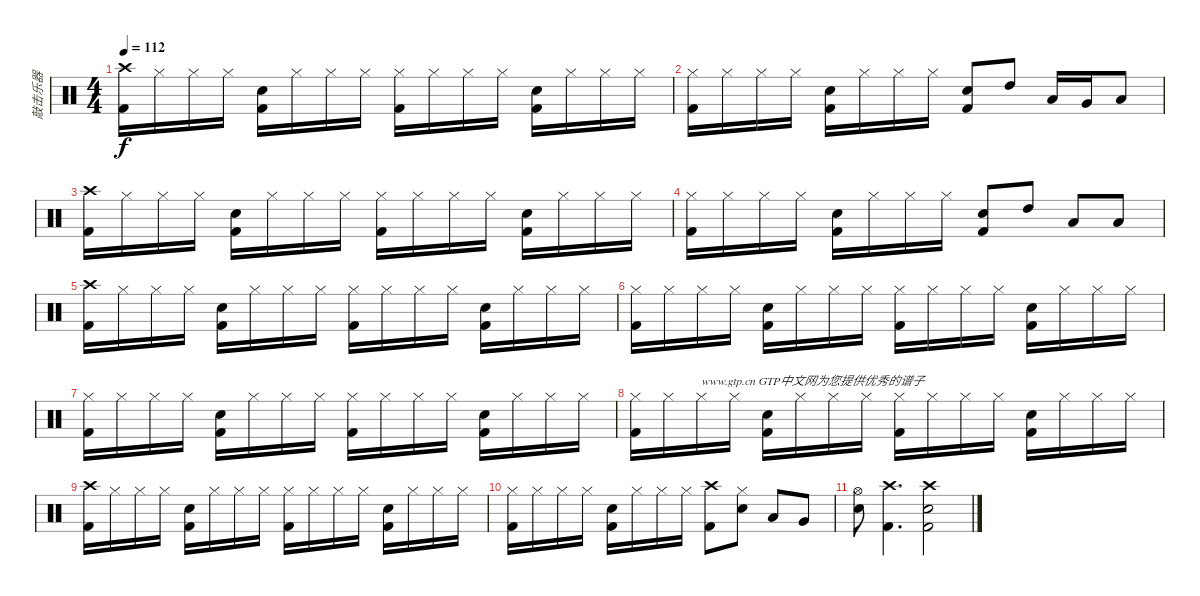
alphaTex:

\track ("敲击乐器" "敲击乐器") {instrument percussion}
\staff {score}
\articulation defaults
\ts (4 4)
\tempo 112
\clef neutral
\ks c
("Crash high (hit)" "Kick (hit) 2").16{dy f} "Hi-Hat (closed)".16 "Hi-Hat (closed)".16 "Hi-Hat (closed)".16 ("Snare (hit) 2" "Kick (hit) 2").16 "Hi-Hat (closed)".16 "Hi-Hat (closed)".16 "Hi-Hat (closed)".16 ("Hi-Hat (closed)" "Kick (hit) 2").16 "Hi-Hat (closed)".16 "Hi-Hat (closed)".16 "Hi-Hat (closed)".16 ("Snare (hit) 2" "Kick (hit) 2").16 "Hi-Hat (closed)".16 "Hi-Hat (closed)".16 "Hi-Hat (closed)".16 |
("Hi-Hat (closed)" "Kick (hit) 2").16 "Hi-Hat (closed)".16 "Hi-Hat (closed)".16 "Hi-Hat (closed)".16 ("Snare (hit) 2" "Kick (hit) 2").16 "Hi-Hat (closed)".16 "Hi-Hat (closed)".16 "Hi-Hat (closed)".16 ("Snare (hit) 2" "Kick (hit) 2").8 "High Tom (hit)".8 "Low Tom (hit)".16 "Very Low Tom (hit)".16 "Low Floor Tom (hit)".8 |
("Crash high (hit)" "Kick (hit) 2").16 "Hi-Hat (closed)".16 "Hi-Hat (closed)".16 "Hi-Hat (closed)".16 ("Snare (hit) 2" "Kick (hit) 2").16 "Hi-Hat (closed)".16 "Hi-Hat (closed)".16 "Hi-Hat (closed)".16 ("Hi-Hat (closed)" "Kick (hit) 2").16 "Hi-Hat (closed)".16 "Hi-Hat (closed)".16 "Hi-Hat (closed)".16 ("Snare (hit) 2" "Kick (hit) 2").16 "Hi-Hat (closed)".16 "Hi-Hat (closed)".16 "Hi-Hat (closed)".16 |
("Hi-Hat (closed)" "Kick (hit) 2").16 "Hi-Hat (closed)".16 "Hi-Hat (closed)".16 "Hi-Hat (closed)".16 ("Snare (hit) 2" "Kick (hit) 2").16 "Hi-Hat (closed)".16 "Hi-Hat (closed)".16 "Hi-Hat (closed)".16 ("Snare (hit) 2" "Kick (hit) 2").8 "High Tom (hit)".8 "Low Tom (hit)".8 "Low Floor Tom (hit)".8 |
("Crash high (hit)" "Kick (hit) 2").16 "Hi-Hat (closed)".16 "Hi-Hat (closed)".16 "Hi-Hat (closed)".16 ("Snare (hit) 2" "Kick (hit) 2").16 "Hi-Hat (closed)".16 "Hi-Hat (closed)".16 "Hi-Hat (closed)".16 ("Hi-Hat (closed)" "Kick (hit) 2").16 "Hi-Hat (closed)".16 "Hi-Hat (closed)".16 "Hi-Hat (closed)".16 ("Snare (hit) 2" "Kick (hit) 2").16 "Hi-Hat (closed)".16 "Hi-Hat (closed)".16 "Hi-Hat (closed)".16 |
("Hi-Hat (closed)" "Kick (hit) 2").16 "Hi-Hat (closed)".16 "Hi-Hat (closed)".16 "Hi-Hat (closed)".16 ("Snare (hit) 2" "Kick (hit) 2").16 "Hi-Hat (closed)".16 "Hi-Hat (closed)".16 "Hi-Hat (closed)".16 ("Hi-Hat (closed)" "Kick (hit) 2").16 "Hi-Hat (closed)".16 "Hi-Hat (closed)".16 "Hi-Hat (closed)".16 ("Snare (hit) 2" "Kick (hit) 2").16 "Hi-Hat (closed)".16 "Hi-Hat (closed)".16 "Hi-Hat (closed)".16 |
("Hi-Hat (closed)" "Kick (hit) 2").16 "Hi-Hat (closed)".16 "Hi-Hat (closed)".16 "Hi-Hat (closed)".16 ("Snare (hit) 2" "Kick (hit) 2").16 "Hi-Hat (closed)".16 "Hi-Hat (closed)".16 "Hi-Hat (closed)".16 ("Hi-Hat (closed)" "Kick (hit) 2").16 "Hi-Hat (closed)".16 "Hi-Hat (closed)".16 "Hi-Hat (closed)".16 ("Snare (hit) 2" "Kick (hit) 2").16 "Hi-Hat (closed)".16 "Hi-Hat (closed)".16 "Hi-Hat (closed)".16 |
("Hi-Hat (closed)" "Kick (hit) 2").16 "Hi-Hat (closed)".16 "Hi-Hat (closed)".16{txt "www.gtp.cn GTP中文网为您提供优秀的谱子"} "Hi-Hat (closed)".16 ("Snare (hit) 2" "Kick (hit) 2").16 "Hi-Hat (closed)".16 "Hi-Hat (closed)".16 "Hi-Hat (closed)".16 ("Hi-Hat (closed)" "Kick (hit) 2").16 "Hi-Hat (closed)".16 "Hi-Hat (closed)".16 "Hi-Hat (closed)".16 ("Snare (hit) 2" "Kick (hit) 2").16 "Hi-Hat (closed)".16 "Hi-Hat (closed)".16 "Hi-Hat (closed)".16 |
("Crash high (hit)" "Kick (hit) 2").16 "Hi-Hat (closed)".16 "Hi-Hat (closed)".16 "Hi-Hat (closed)".16 ("Snare (hit) 2" "Kick (hit) 2").16 "Hi-Hat (closed)".16 "Hi-Hat (closed)".16 "Hi-Hat (closed)".16 ("Hi-Hat (closed)" "Kick (hit) 2").16 "Hi-Hat (closed)".16 "Hi-Hat (closed)".16 "Hi-Hat (closed)".16 ("Snare (hit) 2" "Kick (hit) 2").16 "Hi-Hat (closed)".16 "Hi-Hat (closed)".16 "Hi-Hat (closed)".16 |
("Hi-Hat (closed)" "Kick (hit) 2").16 "Hi-Hat (closed)".16 "Hi-Hat (closed)".16 "Hi-Hat (closed)".16 ("Snare (hit) 2" "Kick (hit) 2").16 "Hi-Hat (closed)".16 "Hi-Hat (closed)".16 "Hi-Hat (closed)".16 ("Crash high (hit)" "Kick (hit) 2").8 ("Hi-Hat (closed)" "Snare (hit) 2").8 "Low Tom (hit)".8 "Very Low Tom (hit)".8 |
("Hi-Hat (open)" "Snare (hit) 2").8 ("Crash high (hit)" "Kick (hit) 2").4{d} ("Crash high (hit)" "Snare (hit) 2" "Kick (hit) 2").2
